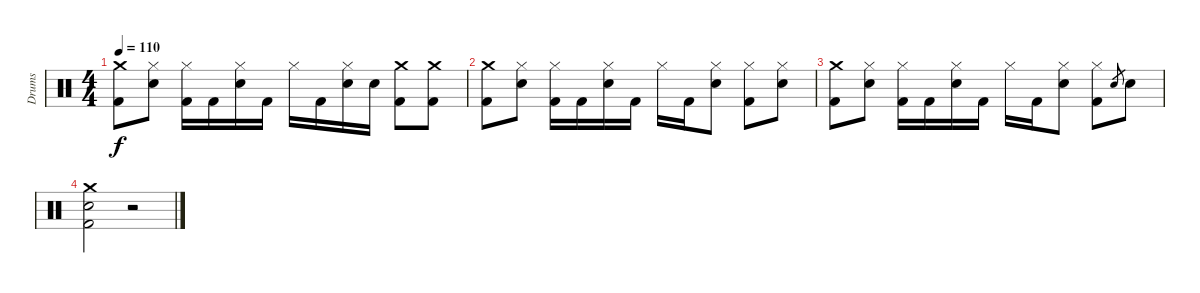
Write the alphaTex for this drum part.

\track ("Drums" "Drums") {instrument percussion}
\staff {score}
\articulation defaults
\ts (4 4)
\tempo 110
\clef neutral
\ks c
("Crash medium (hit)" "Kick (hit) 2").8{dy f} ("Hi-Hat (closed)" "Snare (hit) 2").8 ("Hi-Hat (closed)" "Kick (hit) 2").16 "Kick (hit) 2".16 ("Hi-Hat (closed)" "Snare (hit) 2").16 "Kick (hit) 2".16 "Hi-Hat (closed)".16 "Kick (hit) 2".16 ("Hi-Hat (closed)" "Snare (hit) 2").16 "Snare (hit) 2".16 ("Crash medium (hit)" "Kick (hit) 2").8 ("Crash medium (hit)" "Kick (hit) 2").8 |
("Crash medium (hit)" "Kick (hit) 2").8 ("Hi-Hat (closed)" "Snare (hit) 2").8 ("Hi-Hat (closed)" "Kick (hit) 2").16 "Kick (hit) 2".16 ("Hi-Hat (closed)" "Snare (hit) 2").16 "Kick (hit) 2".16 "Hi-Hat (closed)".16 "Kick (hit) 2".16 ("Hi-Hat (closed)" "Snare (hit) 2").8 ("Hi-Hat (closed)" "Kick (hit) 2").8 ("Hi-Hat (closed)" "Snare (hit) 2").8 |
("Crash medium (hit)" "Kick (hit) 2").8 ("Hi-Hat (closed)" "Snare (hit) 2").8 ("Hi-Hat (closed)" "Kick (hit) 2").16 "Kick (hit) 2".16 ("Hi-Hat (closed)" "Snare (hit) 2").16 "Kick (hit) 2".16 "Hi-Hat (closed)".16 "Kick (hit) 2".16 ("Hi-Hat (closed)" "Snare (hit) 2").8 ("Hi-Hat (closed)" "Kick (hit) 2").8 "Snare (hit) 2".8{gr} "Snare (hit) 2".8 |
("Crash medium (hit)" "Snare (hit) 2" "Kick (hit) 2").2 r.2
